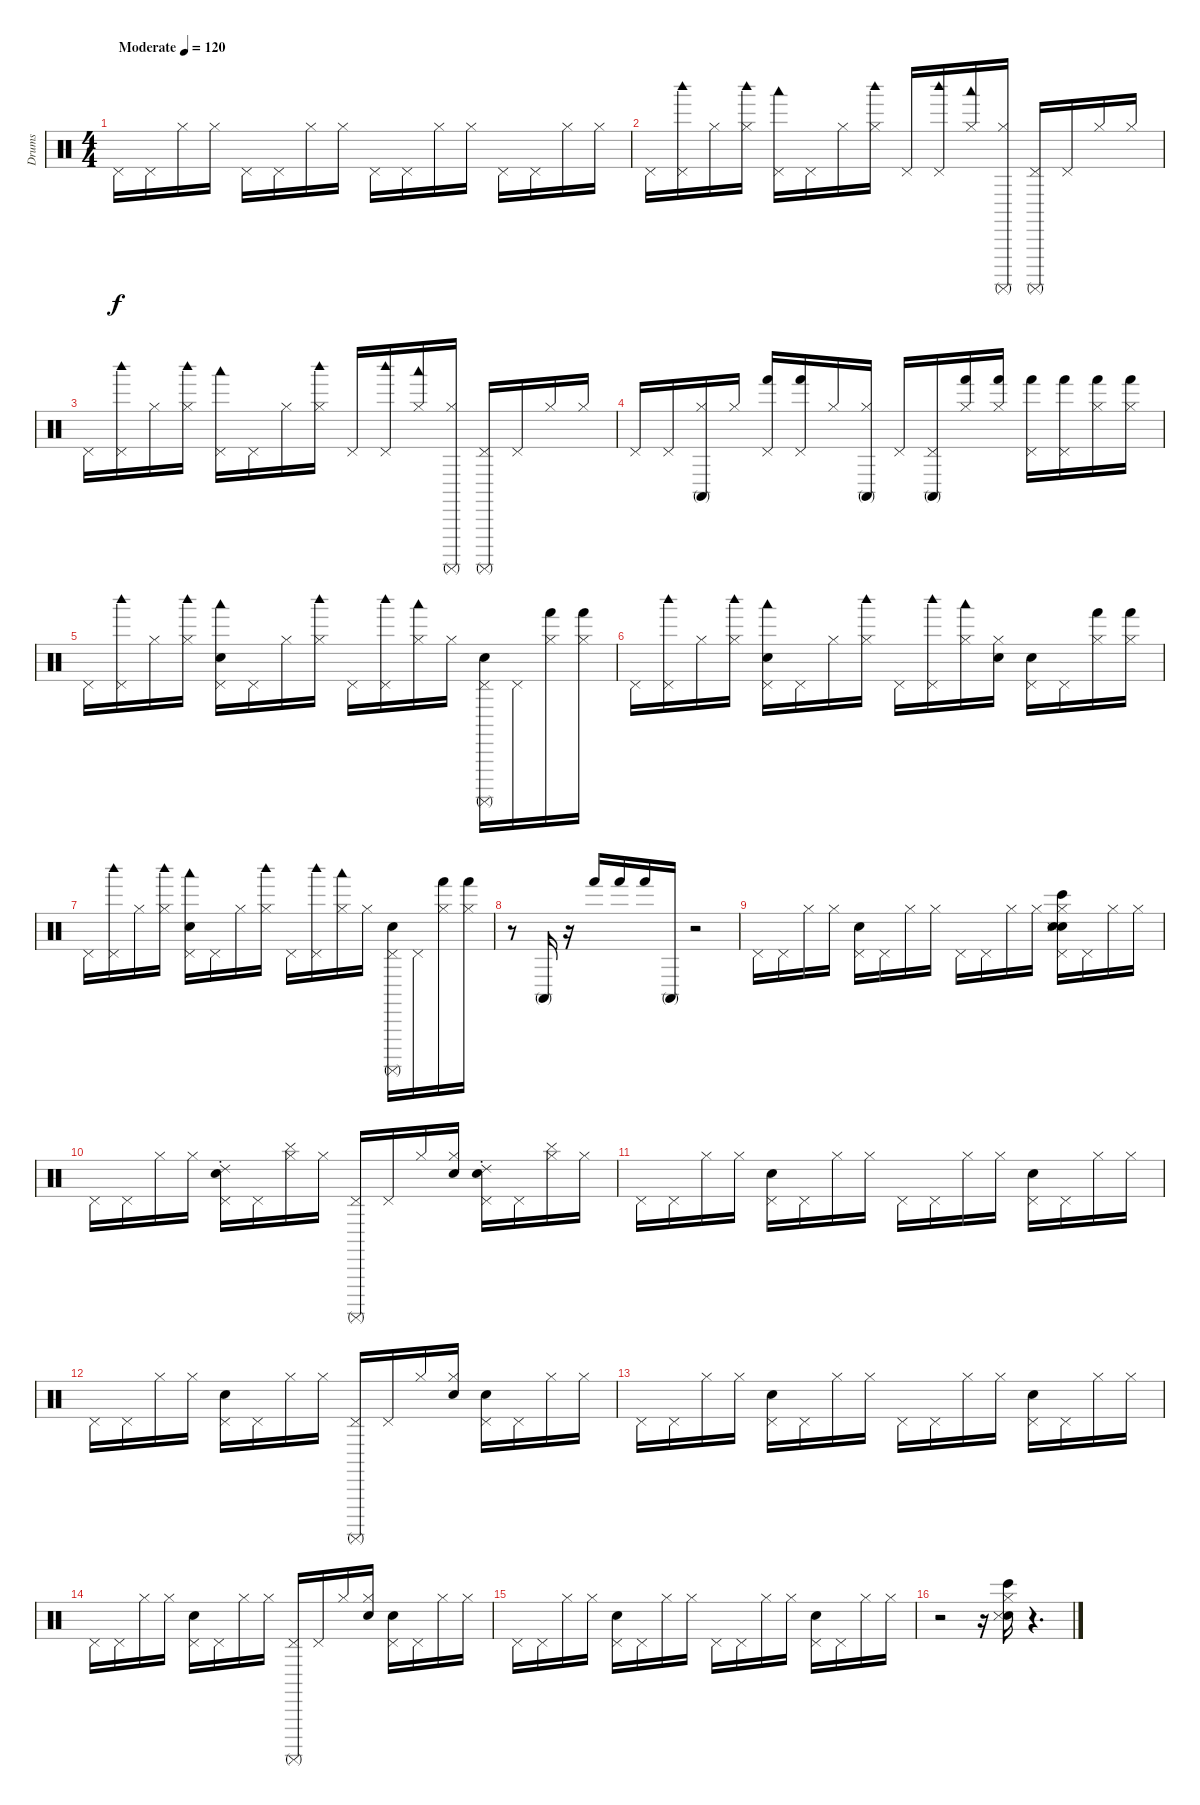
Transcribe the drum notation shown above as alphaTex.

\track ("Drums" "Drums") {instrument percussion}
\staff {score}
\articulation defaults
\ts (4 4)
\tempo (120 "Moderate")
\clef neutral
\ks c "Pedal Hi-Hat (hit)".16{dy f} "Pedal Hi-Hat (hit)".16 "Hi-Hat (closed)".16 "Hi-Hat (closed)".16 "Pedal Hi-Hat (hit)".16 "Pedal Hi-Hat (hit)".16 "Hi-Hat (closed)".16 "Hi-Hat (closed)".16 "Pedal Hi-Hat (hit)".16 "Pedal Hi-Hat (hit)".16 "Hi-Hat (closed)".16 "Hi-Hat (closed)".16 "Pedal Hi-Hat (hit)".16 "Pedal Hi-Hat (hit)".16 "Hi-Hat (closed)".16 "Hi-Hat (closed)".16
|
"Pedal Hi-Hat (hit)".16 ("Pedal Hi-Hat (hit)" "Woodblock high (hit)").16 "Hi-Hat (closed)".16 ("Hi-Hat (closed)" "Woodblock high (hit)").16 ("Pedal Hi-Hat (hit)" "Woodblock low (hit)").16 "Pedal Hi-Hat (hit)".16 "Hi-Hat (closed)".16 ("Hi-Hat (closed)" "Woodblock high (hit)").16 "Pedal Hi-Hat (hit)".16 ("Pedal Hi-Hat (hit)" "Woodblock high (hit)").16 ("Hi-Hat (closed)" "Woodblock low (hit)").16 ("Hi-Hat (closed)" "Surdo (mute)").16 ("Pedal Hi-Hat (hit)" "Surdo (mute)").16 "Pedal Hi-Hat (hit)".16 "Hi-Hat (closed)".16 "Hi-Hat (closed)".16 |
"Pedal Hi-Hat (hit)".16 ("Pedal Hi-Hat (hit)" "Woodblock high (hit)").16 "Hi-Hat (closed)".16 ("Hi-Hat (closed)" "Woodblock high (hit)").16 ("Pedal Hi-Hat (hit)" "Woodblock low (hit)").16 "Pedal Hi-Hat (hit)".16 "Hi-Hat (closed)".16 ("Hi-Hat (closed)" "Woodblock high (hit)").16 "Pedal Hi-Hat (hit)".16 ("Pedal Hi-Hat (hit)" "Woodblock high (hit)").16 ("Hi-Hat (closed)" "Woodblock low (hit)").16 ("Hi-Hat (closed)" "Surdo (mute)").16 ("Pedal Hi-Hat (hit)" "Surdo (mute)").16 "Pedal Hi-Hat (hit)".16 "Hi-Hat (closed)".16 "Hi-Hat (closed)".16 |
"Pedal Hi-Hat (hit)".16 "Pedal Hi-Hat (hit)".16 ("Hi-Hat (closed)" "Conga high (mute)").16 "Hi-Hat (closed)".16 ("Pedal Hi-Hat (hit)" "Hand (hit)").16 ("Pedal Hi-Hat (hit)" "Hand (hit)").16 "Hi-Hat (closed)".16 ("Hi-Hat (closed)" "Conga high (mute)").16 "Pedal Hi-Hat (hit)".16 ("Pedal Hi-Hat (hit)" "Conga high (mute)").16 ("Hi-Hat (closed)" "Hand (hit)").16 ("Hi-Hat (closed)" "Hand (hit)").16 ("Pedal Hi-Hat (hit)" "Hand (hit)").16 ("Pedal Hi-Hat (hit)" "Hand (hit)").16 ("Hi-Hat (closed)" "Hand (hit)").16 ("Hi-Hat (closed)" "Hand (hit)").16 |
"Pedal Hi-Hat (hit)".16 ("Pedal Hi-Hat (hit)" "Woodblock high (hit)").16 "Hi-Hat (closed)".16 ("Hi-Hat (closed)" "Woodblock high (hit)").16 ("Pedal Hi-Hat (hit)" "Woodblock low (hit)" "Hand Clap (hit)").16 "Pedal Hi-Hat (hit)".16 "Hi-Hat (closed)".16 ("Hi-Hat (closed)" "Woodblock high (hit)").16 "Pedal Hi-Hat (hit)".16 ("Pedal Hi-Hat (hit)" "Woodblock high (hit)").16 ("Hi-Hat (closed)" "Woodblock low (hit)").16 "Hi-Hat (closed)".16 ("Pedal Hi-Hat (hit)" "Surdo (mute)" "Hand Clap (hit)").16 "Pedal Hi-Hat (hit)".16 ("Hi-Hat (closed)" "Hand (hit)").16 ("Hi-Hat (closed)" "Hand (hit)").16 |
"Pedal Hi-Hat (hit)".16 ("Pedal Hi-Hat (hit)" "Woodblock high (hit)").16 "Hi-Hat (closed)".16 ("Hi-Hat (closed)" "Woodblock high (hit)").16 ("Pedal Hi-Hat (hit)" "Woodblock low (hit)" "Hand Clap (hit)").16 "Pedal Hi-Hat (hit)".16 "Hi-Hat (closed)".16 ("Hi-Hat (closed)" "Woodblock high (hit)").16 "Pedal Hi-Hat (hit)".16 ("Pedal Hi-Hat (hit)" "Woodblock high (hit)").16 ("Hi-Hat (closed)" "Woodblock low (hit)").16 ("Hi-Hat (closed)" "Hand Clap (hit)").16 ("Pedal Hi-Hat (hit)" "Hand Clap (hit)").16 "Pedal Hi-Hat (hit)".16 ("Hi-Hat (closed)" "Hand (hit)").16 ("Hi-Hat (closed)" "Hand (hit)").16 |
"Pedal Hi-Hat (hit)".16 ("Pedal Hi-Hat (hit)" "Woodblock high (hit)").16 "Hi-Hat (closed)".16 ("Hi-Hat (closed)" "Woodblock high (hit)").16 ("Pedal Hi-Hat (hit)" "Woodblock low (hit)" "Hand Clap (hit)").16 "Pedal Hi-Hat (hit)".16 "Hi-Hat (closed)".16 ("Hi-Hat (closed)" "Woodblock high (hit)").16 "Pedal Hi-Hat (hit)".16 ("Pedal Hi-Hat (hit)" "Woodblock high (hit)").16 ("Hi-Hat (closed)" "Woodblock low (hit)").16 "Hi-Hat (closed)".16 ("Pedal Hi-Hat (hit)" "Surdo (mute)" "Hand Clap (hit)").16 "Pedal Hi-Hat (hit)".16 ("Hi-Hat (closed)" "Hand (hit)").16 ("Hi-Hat (closed)" "Hand (hit)").16 |
r.8 "Conga high (mute)".16 r.16 "Hand (hit)".16 "Hand (hit)".16 "Hand (hit)".16 "Conga high (mute)".16 r.2 |
"Pedal Hi-Hat (hit)".16 "Pedal Hi-Hat (hit)".16 "Hi-Hat (closed)".16 "Hi-Hat (closed)".16 ("Pedal Hi-Hat (hit)" "Hand Clap (hit)").16 "Pedal Hi-Hat (hit)".16 "Hi-Hat (closed)".16 "Hi-Hat (closed)".16 "Pedal Hi-Hat (hit)".16 "Pedal Hi-Hat (hit)".16 "Hi-Hat (closed)".16 "Hi-Hat (closed)".16 ("Pedal Hi-Hat (hit)" "Hand Clap (hit)" "Snare (hit) 2" "Snare (side stick) 3" "Bongo High (hit)" "Hi-Hat (closed)").16 "Pedal Hi-Hat (hit)".16 "Hi-Hat (closed)".16 "Hi-Hat (closed)".16 |
"Pedal Hi-Hat (hit)".16 "Pedal Hi-Hat (hit)".16 "Hi-Hat (closed)".16 "Hi-Hat (closed)".16 ("Pedal Hi-Hat (hit)" "Hand Clap (hit)" "Ride (choke) 2").16 "Pedal Hi-Hat (hit)".16 ("Hi-Hat (closed)" "Cymbal (hit)").16 "Hi-Hat (closed)".16 ("Pedal Hi-Hat (hit)" "Surdo (mute)").16 "Pedal Hi-Hat (hit)".16 "Hi-Hat (closed)".16 ("Hi-Hat (closed)" "Hand Clap (hit)").16 ("Pedal Hi-Hat (hit)" "Hand Clap (hit)" "Ride (choke) 2").16 "Pedal Hi-Hat (hit)".16 ("Hi-Hat (closed)" "Cymbal (hit)").16 "Hi-Hat (closed)".16 |
"Pedal Hi-Hat (hit)".16 "Pedal Hi-Hat (hit)".16 "Hi-Hat (closed)".16 "Hi-Hat (closed)".16 ("Pedal Hi-Hat (hit)" "Hand Clap (hit)").16 "Pedal Hi-Hat (hit)".16 "Hi-Hat (closed)".16 "Hi-Hat (closed)".16 "Pedal Hi-Hat (hit)".16 "Pedal Hi-Hat (hit)".16 "Hi-Hat (closed)".16 "Hi-Hat (closed)".16 ("Pedal Hi-Hat (hit)" "Hand Clap (hit)").16 "Pedal Hi-Hat (hit)".16 "Hi-Hat (closed)".16 "Hi-Hat (closed)".16 |
"Pedal Hi-Hat (hit)".16 "Pedal Hi-Hat (hit)".16 "Hi-Hat (closed)".16 "Hi-Hat (closed)".16 ("Pedal Hi-Hat (hit)" "Hand Clap (hit)").16 "Pedal Hi-Hat (hit)".16 "Hi-Hat (closed)".16 "Hi-Hat (closed)".16 ("Pedal Hi-Hat (hit)" "Surdo (mute)").16 "Pedal Hi-Hat (hit)".16 "Hi-Hat (closed)".16 ("Hi-Hat (closed)" "Hand Clap (hit)").16 ("Pedal Hi-Hat (hit)" "Hand Clap (hit)").16 "Pedal Hi-Hat (hit)".16 "Hi-Hat (closed)".16 "Hi-Hat (closed)".16 |
"Pedal Hi-Hat (hit)".16 "Pedal Hi-Hat (hit)".16 "Hi-Hat (closed)".16 "Hi-Hat (closed)".16 ("Pedal Hi-Hat (hit)" "Hand Clap (hit)").16 "Pedal Hi-Hat (hit)".16 "Hi-Hat (closed)".16 "Hi-Hat (closed)".16 "Pedal Hi-Hat (hit)".16 "Pedal Hi-Hat (hit)".16 "Hi-Hat (closed)".16 "Hi-Hat (closed)".16 ("Pedal Hi-Hat (hit)" "Hand Clap (hit)").16 "Pedal Hi-Hat (hit)".16 "Hi-Hat (closed)".16 "Hi-Hat (closed)".16 |
"Pedal Hi-Hat (hit)".16 "Pedal Hi-Hat (hit)".16 "Hi-Hat (closed)".16 "Hi-Hat (closed)".16 ("Pedal Hi-Hat (hit)" "Hand Clap (hit)").16 "Pedal Hi-Hat (hit)".16 "Hi-Hat (closed)".16 "Hi-Hat (closed)".16 ("Pedal Hi-Hat (hit)" "Surdo (mute)").16 "Pedal Hi-Hat (hit)".16 "Hi-Hat (closed)".16 ("Hi-Hat (closed)" "Hand Clap (hit)").16 ("Pedal Hi-Hat (hit)" "Hand Clap (hit)").16 "Pedal Hi-Hat (hit)".16 "Hi-Hat (closed)".16 "Hi-Hat (closed)".16 |
"Pedal Hi-Hat (hit)".16 "Pedal Hi-Hat (hit)".16 "Hi-Hat (closed)".16 "Hi-Hat (closed)".16 ("Pedal Hi-Hat (hit)" "Hand Clap (hit)").16 "Pedal Hi-Hat (hit)".16 "Hi-Hat (closed)".16 "Hi-Hat (closed)".16 "Pedal Hi-Hat (hit)".16 "Pedal Hi-Hat (hit)".16 "Hi-Hat (closed)".16 "Hi-Hat (closed)".16 ("Pedal Hi-Hat (hit)" "Hand Clap (hit)").16 "Pedal Hi-Hat (hit)".16 "Hi-Hat (closed)".16 "Hi-Hat (closed)".16 |
r.2 r.16 ("Hand Clap (hit)" "Snare (side stick) 3" "Bongo High (hit)" "Hi-Hat (closed)").16 r.4{d}
